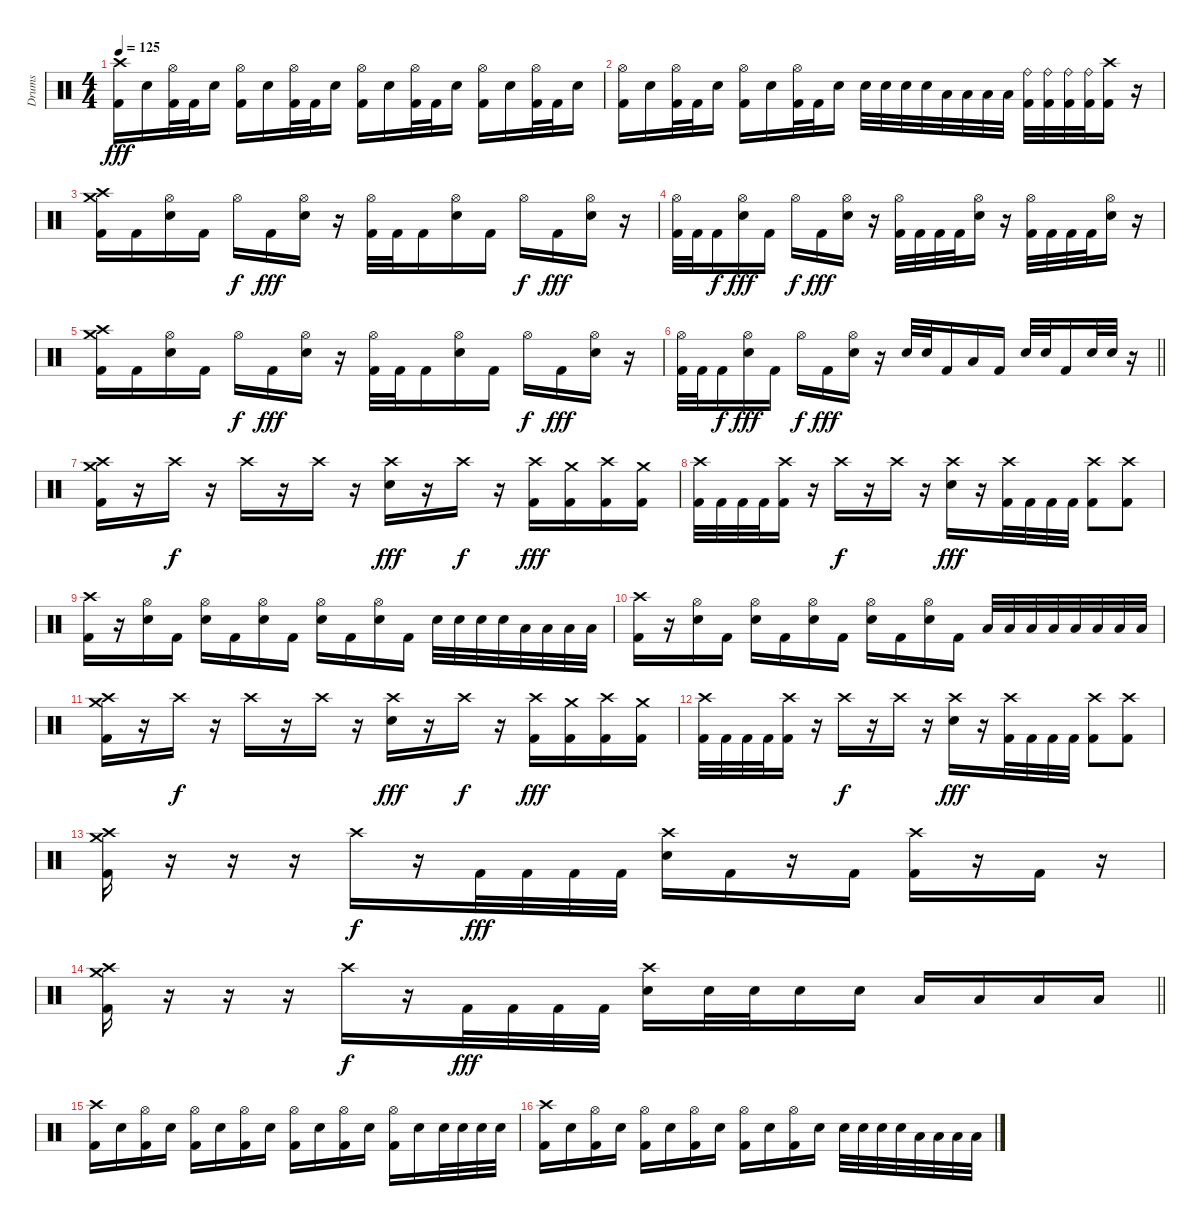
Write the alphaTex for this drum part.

\track ("Drums" "Drums") {instrument percussion}
\staff {score}
\articulation defaults
\ts (4 4)
\tempo 125
\clef neutral
\ks c
("Crash high (hit)" "Kick (hit) 2").16{dy fff} "Electric Snare (hit)".16 ("Hi-Hat (open)" "Kick (hit) 2").32 "Kick (hit) 2".32 "Electric Snare (hit)".16 ("Hi-Hat (open)" "Kick (hit) 2").16 "Electric Snare (hit)".16 ("Hi-Hat (open)" "Kick (hit) 2").32 "Kick (hit) 2".32 "Electric Snare (hit)".16 ("Hi-Hat (open)" "Kick (hit) 2").16 "Electric Snare (hit)".16 ("Hi-Hat (open)" "Kick (hit) 2").32 "Kick (hit) 2".32 "Electric Snare (hit)".16 ("Hi-Hat (open)" "Kick (hit) 2").16 "Electric Snare (hit)".16 ("Hi-Hat (open)" "Kick (hit) 2").32 "Kick (hit) 2".32 "Electric Snare (hit)".16 |
("Hi-Hat (open)" "Kick (hit) 2").16 "Electric Snare (hit)".16 ("Hi-Hat (open)" "Kick (hit) 2").32 "Kick (hit) 2".32 "Electric Snare (hit)".16 ("Hi-Hat (open)" "Kick (hit) 2").16 "Electric Snare (hit)".16 ("Hi-Hat (open)" "Kick (hit) 2").32 "Kick (hit) 2".32 "Electric Snare (hit)".16 "Electric Snare (hit)".32 "Electric Snare (hit)".32 "Electric Snare (hit)".32 "Electric Snare (hit)".32 "Low Tom (hit)".32 "Low Tom (hit)".32 "Low Tom (hit)".32 "Low Tom (hit)".32 ("Ride (bell)" "Kick (hit) 2").32 ("Ride (bell)" "Kick (hit) 2").32 ("Ride (bell)" "Kick (hit) 2").32 ("Ride (bell)" "Kick (hit) 2").32 ("Crash high (hit)" "Kick (hit) 2").16 r.16 |
("Crash high (hit)" "Crash medium (hit)" "Kick (hit) 2").16 "Kick (hit) 2".16 ("Hi-Hat (open)" "Electric Snare (hit)").16 "Kick (hit) 2".16 "Hi-Hat (open)".16{dy f} "Kick (hit) 2".16{dy fff} ("Hi-Hat (open)" "Electric Snare (hit)").16 r.16 ("Hi-Hat (open)" "Kick (hit) 2").32 "Kick (hit) 2".32 "Kick (hit) 2".16 ("Hi-Hat (open)" "Electric Snare (hit)").16 "Kick (hit) 2".16 "Hi-Hat (open)".16{dy f} "Kick (hit) 2".16{dy fff} ("Hi-Hat (open)" "Electric Snare (hit)").16 r.16 |
("Hi-Hat (open)" "Kick (hit) 2").32 "Kick (hit) 2".32 "Kick (hit) 2".16{dy f} ("Hi-Hat (open)" "Electric Snare (hit)").16{dy fff} "Kick (hit) 2".16 "Hi-Hat (open)".16{dy f} "Kick (hit) 2".16{dy fff} ("Hi-Hat (open)" "Electric Snare (hit)").16 r.16 ("Hi-Hat (open)" "Kick (hit) 2").32 "Kick (hit) 2".32 "Kick (hit) 2".32 "Kick (hit) 2".32 ("Hi-Hat (open)" "Electric Snare (hit)").16 r.16 ("Hi-Hat (open)" "Kick (hit) 2").32 "Kick (hit) 2".32 "Kick (hit) 2".32 "Kick (hit) 2".32 ("Hi-Hat (open)" "Electric Snare (hit)").16 r.16 |
("Crash high (hit)" "Crash medium (hit)" "Kick (hit) 2").16 "Kick (hit) 2".16 ("Hi-Hat (open)" "Electric Snare (hit)").16 "Kick (hit) 2".16 "Hi-Hat (open)".16{dy f} "Kick (hit) 2".16{dy fff} ("Hi-Hat (open)" "Electric Snare (hit)").16 r.16 ("Hi-Hat (open)" "Kick (hit) 2").32 "Kick (hit) 2".32 "Kick (hit) 2".16 ("Hi-Hat (open)" "Electric Snare (hit)").16 "Kick (hit) 2".16 "Hi-Hat (open)".16{dy f} "Kick (hit) 2".16{dy fff} ("Hi-Hat (open)" "Electric Snare (hit)").16 r.16 |
\barLineRight lightlight
("Hi-Hat (open)" "Kick (hit) 2").32 "Kick (hit) 2".32 "Kick (hit) 2".16{dy f} ("Hi-Hat (open)" "Electric Snare (hit)").16{dy fff} "Kick (hit) 2".16 "Hi-Hat (open)".16{dy f} "Kick (hit) 2".16{dy fff} ("Hi-Hat (open)" "Electric Snare (hit)").16 r.16 "Electric Snare (hit)".32 "Electric Snare (hit)".32 "Kick (hit) 2".16 "Low Tom (hit)".16 "Kick (hit) 2".16 "Electric Snare (hit)".32 "Electric Snare (hit)".32 "Kick (hit) 2".16 "Electric Snare (hit)".32 "Electric Snare (hit)".32 r.16 |
\section ("" "")
("Crash high (hit)" "Crash medium (hit)" "Kick (hit) 2").16 r.16 "Crash high (hit)".16{dy f} r.16 "Crash high (hit)".16 r.16 "Crash high (hit)".16 r.16 ("Crash high (hit)" "Electric Snare (hit)").16{dy fff} r.16 "Crash high (hit)".16{dy f} r.16 ("Crash high (hit)" "Kick (hit) 2").16{dy fff} ("Crash medium (hit)" "Kick (hit) 2").16 ("Crash high (hit)" "Kick (hit) 2").16 ("Crash medium (hit)" "Kick (hit) 2").16 |
("Crash high (hit)" "Kick (hit) 2").32 "Kick (hit) 2".32 "Kick (hit) 2".32 "Kick (hit) 2".32 ("Crash high (hit)" "Kick (hit) 2").16 r.16 "Crash high (hit)".16{dy f} r.16 "Crash high (hit)".16 r.16 ("Crash high (hit)" "Electric Snare (hit)").16{dy fff} r.16 ("Crash high (hit)" "Kick (hit) 2").32 "Kick (hit) 2".32 "Kick (hit) 2".32 "Kick (hit) 2".32 ("Crash high (hit)" "Kick (hit) 2").8 ("Crash high (hit)" "Kick (hit) 2").8 |
("Crash high (hit)" "Kick (hit) 2").16 r.16 ("Hi-Hat (open)" "Electric Snare (hit)").16 "Kick (hit) 2".16 ("Hi-Hat (open)" "Electric Snare (hit)").16 "Kick (hit) 2".16 ("Hi-Hat (open)" "Electric Snare (hit)").16 "Kick (hit) 2".16 ("Hi-Hat (open)" "Electric Snare (hit)").16 "Kick (hit) 2".16 ("Hi-Hat (open)" "Electric Snare (hit)").16 "Kick (hit) 2".16 "Electric Snare (hit)".32 "Electric Snare (hit)".32 "Electric Snare (hit)".32 "Electric Snare (hit)".32 "Low Tom (hit)".32 "Low Tom (hit)".32 "Low Tom (hit)".32 "Low Tom (hit)".32 |
("Crash high (hit)" "Kick (hit) 2").16 r.16 ("Hi-Hat (open)" "Electric Snare (hit)").16 "Kick (hit) 2".16 ("Hi-Hat (open)" "Electric Snare (hit)").16 "Kick (hit) 2".16 ("Hi-Hat (open)" "Electric Snare (hit)").16 "Kick (hit) 2".16 ("Hi-Hat (open)" "Electric Snare (hit)").16 "Kick (hit) 2".16 ("Hi-Hat (open)" "Electric Snare (hit)").16 "Kick (hit) 2".16 "Low Tom (hit)".32 "Low Tom (hit)".32 "Low Tom (hit)".32 "Low Tom (hit)".32 "Low Floor Tom (hit)".32 "Low Floor Tom (hit)".32 "Low Floor Tom (hit)".32 "Low Floor Tom (hit)".32 |
("Crash high (hit)" "Crash medium (hit)" "Kick (hit) 2").16 r.16 "Crash high (hit)".16{dy f} r.16 "Crash high (hit)".16 r.16 "Crash high (hit)".16 r.16 ("Crash high (hit)" "Electric Snare (hit)").16{dy fff} r.16 "Crash high (hit)".16{dy f} r.16 ("Crash high (hit)" "Kick (hit) 2").16{dy fff} ("Crash medium (hit)" "Kick (hit) 2").16 ("Crash high (hit)" "Kick (hit) 2").16 ("Crash medium (hit)" "Kick (hit) 2").16 |
("Crash high (hit)" "Kick (hit) 2").32 "Kick (hit) 2".32 "Kick (hit) 2".32 "Kick (hit) 2".32 ("Crash high (hit)" "Kick (hit) 2").16 r.16 "Crash high (hit)".16{dy f} r.16 "Crash high (hit)".16 r.16 ("Crash high (hit)" "Electric Snare (hit)").16{dy fff} r.16 ("Crash high (hit)" "Kick (hit) 2").32 "Kick (hit) 2".32 "Kick (hit) 2".32 "Kick (hit) 2".32 ("Crash high (hit)" "Kick (hit) 2").8 ("Crash high (hit)" "Kick (hit) 2").8 |
("Crash high (hit)" "Crash medium (hit)" "Kick (hit) 2").16 r.16 r.16 r.16 "Crash high (hit)".16{dy f} r.16 "Kick (hit) 2".32{dy fff} "Kick (hit) 2".32 "Kick (hit) 2".32 "Kick (hit) 2".32 ("Crash high (hit)" "Electric Snare (hit)").16 "Kick (hit) 2".16 r.16 "Kick (hit) 2".16 ("Crash high (hit)" "Kick (hit) 2").16 r.16 "Kick (hit) 2".16 r.16 |
\barLineRight lightlight
("Crash high (hit)" "Crash medium (hit)" "Kick (hit) 2").16 r.16 r.16 r.16 "Crash high (hit)".16{dy f} r.16 "Kick (hit) 2".32{dy fff} "Kick (hit) 2".32 "Kick (hit) 2".32 "Kick (hit) 2".32 ("Crash high (hit)" "Electric Snare (hit)").16 "Electric Snare (hit)".32 "Electric Snare (hit)".32 "Electric Snare (hit)".16 "Electric Snare (hit)".16 "Low Tom (hit)".16 "Low Tom (hit)".16 "Low Floor Tom (hit)".16 "Low Floor Tom (hit)".16 |
\section ("" "")
("Crash high (hit)" "Kick (hit) 2").16 "Electric Snare (hit)".16 ("Hi-Hat (open)" "Kick (hit) 2").16 "Electric Snare (hit)".16 ("Hi-Hat (open)" "Kick (hit) 2").16 "Electric Snare (hit)".16 ("Hi-Hat (open)" "Kick (hit) 2").16 "Electric Snare (hit)".16 ("Hi-Hat (open)" "Kick (hit) 2").16 "Electric Snare (hit)".16 ("Hi-Hat (open)" "Kick (hit) 2").16 "Electric Snare (hit)".16 ("Hi-Hat (open)" "Kick (hit) 2").16 "Electric Snare (hit)".16 "Electric Snare (hit)".32 "Electric Snare (hit)".32 "Electric Snare (hit)".32 "Electric Snare (hit)".32 |
("Crash high (hit)" "Kick (hit) 2").16 "Electric Snare (hit)".16 ("Hi-Hat (open)" "Kick (hit) 2").16 "Electric Snare (hit)".16 ("Hi-Hat (open)" "Kick (hit) 2").16 "Electric Snare (hit)".16 ("Hi-Hat (open)" "Kick (hit) 2").16 "Electric Snare (hit)".16 ("Hi-Hat (open)" "Kick (hit) 2").16 "Electric Snare (hit)".16 ("Hi-Hat (open)" "Kick (hit) 2").16 "Electric Snare (hit)".16 "Electric Snare (hit)".32 "Electric Snare (hit)".32 "Electric Snare (hit)".32 "Electric Snare (hit)".32 "Low Tom (hit)".32 "Low Tom (hit)".32 "Low Tom (hit)".32 "Low Tom (hit)".32
